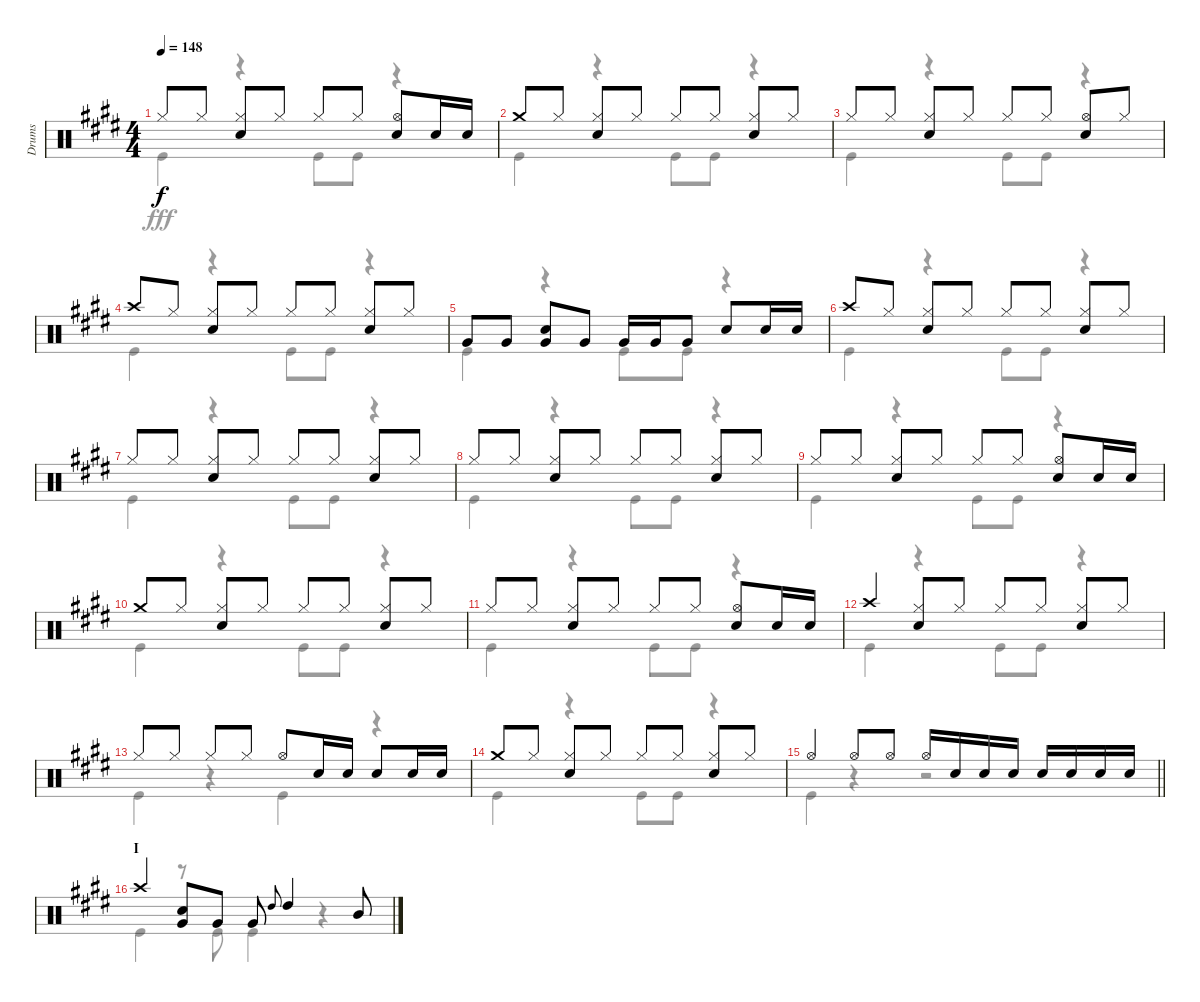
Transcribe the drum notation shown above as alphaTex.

\track ("Drums" "Drums") {instrument percussion}
\staff {score}
\articulation defaults
\voice
\ts (4 4)
\tempo 148
\clef neutral
\ks e "Hi-Hat (closed)".8{dy f} "Hi-Hat (closed)".8
("Hi-Hat (closed)" "Snare (hit) 2").8 "Hi-Hat (closed)".8 "Hi-Hat (closed)".8 "Hi-Hat (closed)".8 ("Hi-Hat (open)" "Snare (hit) 2").8 "Snare (hit) 2".16 "Snare (hit) 2".16 |
"Crash medium (hit)".8 "Hi-Hat (closed)".8 ("Hi-Hat (closed)" "Snare (hit) 2").8 "Hi-Hat (closed)".8 "Hi-Hat (closed)".8 "Hi-Hat (closed)".8 ("Hi-Hat (closed)" "Snare (hit) 2").8 "Hi-Hat (closed)".8 |
"Hi-Hat (closed)".8 "Hi-Hat (closed)".8 ("Hi-Hat (closed)" "Snare (hit) 2").8 "Hi-Hat (closed)".8 "Hi-Hat (closed)".8 "Hi-Hat (closed)".8 ("Hi-Hat (open)" "Snare (hit) 2").8 "Hi-Hat (closed)".8 |
"Crash high (hit)".8 "Hi-Hat (closed)".8 ("Hi-Hat (closed)" "Snare (hit) 2").8 "Hi-Hat (closed)".8 "Hi-Hat (closed)".8 "Hi-Hat (closed)".8 ("Hi-Hat (closed)" "Snare (hit) 2").8 "Hi-Hat (closed)".8 |
"Very Low Tom (hit)".8 "Very Low Tom (hit)".8 ("Snare (hit) 2" "Very Low Tom (hit)").8 "Very Low Tom (hit)".8 "Very Low Tom (hit)".16 "Very Low Tom (hit)".16 "Very Low Tom (hit)".8 "Snare (hit) 2".8 "Snare (hit) 2".16 "Snare (hit) 2".16 |
"Crash high (hit)".8 "Hi-Hat (closed)".8 ("Hi-Hat (closed)" "Snare (hit) 2").8 "Hi-Hat (closed)".8 "Hi-Hat (closed)".8 "Hi-Hat (closed)".8 ("Hi-Hat (closed)" "Snare (hit) 2").8 "Hi-Hat (closed)".8 |
"Hi-Hat (closed)".8 "Hi-Hat (closed)".8 ("Hi-Hat (closed)" "Snare (hit) 2").8 "Hi-Hat (closed)".8 "Hi-Hat (closed)".8 "Hi-Hat (closed)".8 ("Hi-Hat (closed)" "Snare (hit) 2").8 "Hi-Hat (closed)".8 |
"Hi-Hat (closed)".8 "Hi-Hat (closed)".8 ("Hi-Hat (closed)" "Snare (hit) 2").8 "Hi-Hat (closed)".8 "Hi-Hat (closed)".8 "Hi-Hat (closed)".8 ("Hi-Hat (closed)" "Snare (hit) 2").8 "Hi-Hat (closed)".8 |
"Hi-Hat (closed)".8 "Hi-Hat (closed)".8 ("Hi-Hat (closed)" "Snare (hit) 2").8 "Hi-Hat (closed)".8 "Hi-Hat (closed)".8 "Hi-Hat (closed)".8 ("Hi-Hat (open)" "Snare (hit) 2").8 "Snare (hit) 2".16 "Snare (hit) 2".16 |
"Crash medium (hit)".8 "Hi-Hat (closed)".8 ("Hi-Hat (closed)" "Snare (hit) 2").8 "Hi-Hat (closed)".8 "Hi-Hat (closed)".8 "Hi-Hat (closed)".8 ("Hi-Hat (closed)" "Snare (hit) 2").8 "Hi-Hat (closed)".8 |
"Hi-Hat (closed)".8 "Hi-Hat (closed)".8 ("Hi-Hat (closed)" "Snare (hit) 2").8 "Hi-Hat (closed)".8 "Hi-Hat (closed)".8 "Hi-Hat (closed)".8 ("Hi-Hat (open)" "Snare (hit) 2").8 "Snare (hit) 2".16 "Snare (hit) 2".16 |
"Crash high (hit)".4 ("Hi-Hat (closed)" "Snare (hit) 2").8 "Hi-Hat (closed)".8 "Hi-Hat (closed)".8 "Hi-Hat (closed)".8 ("Hi-Hat (closed)" "Snare (hit) 2").8 "Hi-Hat (closed)".8 |
"Hi-Hat (closed)".8 "Hi-Hat (closed)".8 "Hi-Hat (closed)".8 "Hi-Hat (closed)".8 "Hi-Hat (open)".8 "Snare (hit) 2".16 "Snare (hit) 2".16 "Snare (hit) 2".8 "Snare (hit) 2".16 "Snare (hit) 2".16 |
"Crash medium (hit)".8 "Hi-Hat (closed)".8 ("Hi-Hat (closed)" "Snare (hit) 2").8 "Hi-Hat (closed)".8 "Hi-Hat (closed)".8 "Hi-Hat (closed)".8 ("Hi-Hat (closed)" "Snare (hit) 2").8 "Hi-Hat (closed)".8 |
\barLineRight lightlight "Hi-Hat (open)".4 "Hi-Hat (open)".8 "Hi-Hat (open)".8 "Hi-Hat (open)".16 "Snare (hit) 2".16 "Snare (hit) 2".16 "Snare (hit) 2".16 "Snare (hit) 2".16 "Snare (hit) 2".16 "Snare (hit) 2".16 "Snare (hit) 2".16
|
\section ("" "I")
"Crash high (hit)".4 ("Snare (hit) 2" "Very Low Tom (hit)").8 "Very Low Tom (hit)".8 "Very Low Tom (hit)".8 "High Tom (hit)".8{gr onbeat} "High Tom (hit)".4 "Mid Tom (hit)".8
\voice
\clef neutral
\ottava regular
\simile none
\ks e "Kick (hit)".4{dy fff}
r.4 "Kick (hit)".8 "Kick (hit)".8 r.4 |
"Kick (hit)".4 r.4 "Kick (hit)".8 "Kick (hit)".8 r.4 |
"Kick (hit)".4 r.4 "Kick (hit)".8 "Kick (hit)".8 r.4 |
"Kick (hit)".4 r.4 "Kick (hit)".8 "Kick (hit)".8 r.4 |
"Kick (hit)".4 r.4 "Kick (hit)".8 "Kick (hit)".8 r.4 |
"Kick (hit)".4 r.4 "Kick (hit)".8 "Kick (hit)".8 r.4 |
"Kick (hit)".4 r.4 "Kick (hit)".8 "Kick (hit)".8 r.4 |
"Kick (hit)".4 r.4 "Kick (hit)".8 "Kick (hit)".8 r.4 |
"Kick (hit)".4 r.4 "Kick (hit)".8 "Kick (hit)".8 r.4 |
"Kick (hit)".4 r.4 "Kick (hit)".8 "Kick (hit)".8 r.4 |
"Kick (hit)".4 r.4 "Kick (hit)".8 "Kick (hit)".8 r.4 |
"Kick (hit)".4 r.4 "Kick (hit)".8 "Kick (hit)".8 r.4 |
"Kick (hit)".4 r.4 "Kick (hit)".4 r.4 |
"Kick (hit)".4 r.4 "Kick (hit)".8 "Kick (hit)".8 r.4 |
\barLineRight lightlight "Kick (hit)".4
r.4 r.2 |
"Kick (hit)".4 r.8 "Kick (hit)".8 "Kick (hit)".4 r.4
